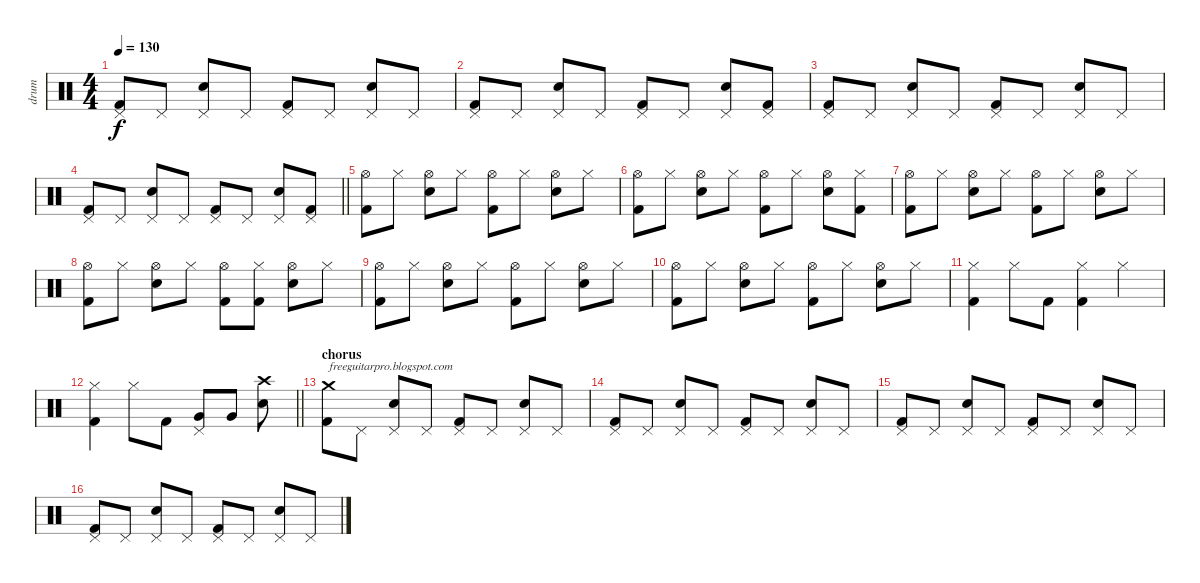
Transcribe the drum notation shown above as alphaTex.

\track ("drum" "drum") {instrument percussion}
\staff {score}
\articulation defaults
\ts (4 4)
\tempo 130
\clef neutral
\ks c
("Pedal Hi-Hat (hit)" "Kick (hit) 2").8{dy f} "Pedal Hi-Hat (hit)".8 ("Pedal Hi-Hat (hit)" "Snare (hit) 2").8 "Pedal Hi-Hat (hit)".8 ("Pedal Hi-Hat (hit)" "Kick (hit) 2").8 "Pedal Hi-Hat (hit)".8 ("Pedal Hi-Hat (hit)" "Snare (hit) 2").8 "Pedal Hi-Hat (hit)".8 |
("Pedal Hi-Hat (hit)" "Kick (hit) 2").8 "Pedal Hi-Hat (hit)".8 ("Pedal Hi-Hat (hit)" "Snare (hit) 2").8 "Pedal Hi-Hat (hit)".8 ("Pedal Hi-Hat (hit)" "Kick (hit) 2").8 "Pedal Hi-Hat (hit)".8 ("Pedal Hi-Hat (hit)" "Snare (hit) 2").8 ("Pedal Hi-Hat (hit)" "Kick (hit) 2").8 |
("Pedal Hi-Hat (hit)" "Kick (hit) 2").8 "Pedal Hi-Hat (hit)".8 ("Pedal Hi-Hat (hit)" "Snare (hit) 2").8 "Pedal Hi-Hat (hit)".8 ("Pedal Hi-Hat (hit)" "Kick (hit) 2").8 "Pedal Hi-Hat (hit)".8 ("Pedal Hi-Hat (hit)" "Snare (hit) 2").8 "Pedal Hi-Hat (hit)".8 |
\barLineRight lightlight
("Pedal Hi-Hat (hit)" "Kick (hit) 2").8 "Pedal Hi-Hat (hit)".8 ("Pedal Hi-Hat (hit)" "Snare (hit) 2").8 "Pedal Hi-Hat (hit)".8 ("Pedal Hi-Hat (hit)" "Kick (hit) 2").8 "Pedal Hi-Hat (hit)".8 ("Pedal Hi-Hat (hit)" "Snare (hit) 2").8 ("Pedal Hi-Hat (hit)" "Kick (hit) 2").8 |
("Hi-Hat (open)" "Kick (hit) 2").8 "Hi-Hat (closed)".8 ("Hi-Hat (open)" "Electric Snare (hit)").8 "Hi-Hat (closed)".8 ("Hi-Hat (open)" "Kick (hit) 2").8 "Hi-Hat (closed)".8 ("Hi-Hat (open)" "Electric Snare (hit)").8 "Hi-Hat (closed)".8 |
("Hi-Hat (open)" "Kick (hit) 2").8 "Hi-Hat (closed)".8 ("Hi-Hat (open)" "Electric Snare (hit)").8 "Hi-Hat (closed)".8 ("Hi-Hat (open)" "Kick (hit) 2").8 "Hi-Hat (closed)".8 ("Hi-Hat (open)" "Electric Snare (hit)").8 ("Hi-Hat (closed)" "Kick (hit) 2").8 |
("Hi-Hat (open)" "Kick (hit) 2").8 "Hi-Hat (closed)".8 ("Hi-Hat (open)" "Electric Snare (hit)").8 "Hi-Hat (closed)".8 ("Hi-Hat (open)" "Kick (hit) 2").8 "Hi-Hat (closed)".8 ("Hi-Hat (open)" "Electric Snare (hit)").8 "Hi-Hat (closed)".8 |
("Hi-Hat (open)" "Kick (hit) 2").8 "Hi-Hat (closed)".8 ("Hi-Hat (open)" "Electric Snare (hit)").8 "Hi-Hat (closed)".8 ("Hi-Hat (open)" "Kick (hit) 2").8 ("Hi-Hat (closed)" "Kick (hit) 2").8 ("Hi-Hat (open)" "Electric Snare (hit)").8 "Hi-Hat (closed)".8 |
("Hi-Hat (open)" "Kick (hit) 2").8 "Hi-Hat (closed)".8 ("Hi-Hat (open)" "Electric Snare (hit)").8 "Hi-Hat (closed)".8 ("Hi-Hat (open)" "Kick (hit) 2").8 "Hi-Hat (closed)".8 ("Hi-Hat (open)" "Electric Snare (hit)").8 "Hi-Hat (closed)".8 |
("Hi-Hat (open)" "Kick (hit) 2").8 "Hi-Hat (closed)".8 ("Hi-Hat (open)" "Electric Snare (hit)").8 "Hi-Hat (closed)".8 ("Hi-Hat (open)" "Kick (hit) 2").8 "Hi-Hat (closed)".8 ("Hi-Hat (open)" "Electric Snare (hit)").8 "Hi-Hat (closed)".8 |
("Hi-Hat (closed)" "Kick (hit) 2").4 "Hi-Hat (closed)".8 "Kick (hit) 2".8 ("Hi-Hat (closed)" "Kick (hit) 2").4 "Hi-Hat (closed)".4 |
\barLineRight lightlight
("Hi-Hat (closed)" "Kick (hit) 2").4 "Hi-Hat (closed)".8 "Kick (hit) 2".8 ("Very Low Tom (hit)" "Pedal Hi-Hat (hit)").8 "Very Low Tom (hit)".8 ("Crash high (hit)" "Electric Snare (hit)").8 |
\section ("" "chorus")
("Crash medium (hit)" "Kick (hit) 2").8{txt "freeguitarpro.blogspot.com"} "Pedal Hi-Hat (hit)".8 ("Pedal Hi-Hat (hit)" "Electric Snare (hit)").8 "Pedal Hi-Hat (hit)".8 ("Pedal Hi-Hat (hit)" "Kick (hit) 2").8 "Pedal Hi-Hat (hit)".8 ("Pedal Hi-Hat (hit)" "Electric Snare (hit)").8 "Pedal Hi-Hat (hit)".8 |
("Pedal Hi-Hat (hit)" "Kick (hit) 2").8 "Pedal Hi-Hat (hit)".8 ("Pedal Hi-Hat (hit)" "Electric Snare (hit)").8 "Pedal Hi-Hat (hit)".8 ("Pedal Hi-Hat (hit)" "Kick (hit) 2").8 "Pedal Hi-Hat (hit)".8 ("Pedal Hi-Hat (hit)" "Electric Snare (hit)").8 "Pedal Hi-Hat (hit)".8 |
("Pedal Hi-Hat (hit)" "Kick (hit) 2").8 "Pedal Hi-Hat (hit)".8 ("Pedal Hi-Hat (hit)" "Electric Snare (hit)").8 "Pedal Hi-Hat (hit)".8 ("Pedal Hi-Hat (hit)" "Kick (hit) 2").8 "Pedal Hi-Hat (hit)".8 ("Pedal Hi-Hat (hit)" "Electric Snare (hit)").8 "Pedal Hi-Hat (hit)".8 |
("Pedal Hi-Hat (hit)" "Kick (hit) 2").8 "Pedal Hi-Hat (hit)".8 ("Pedal Hi-Hat (hit)" "Electric Snare (hit)").8 "Pedal Hi-Hat (hit)".8 ("Pedal Hi-Hat (hit)" "Kick (hit) 2").8 "Pedal Hi-Hat (hit)".8 ("Pedal Hi-Hat (hit)" "Electric Snare (hit)").8 "Pedal Hi-Hat (hit)".8
